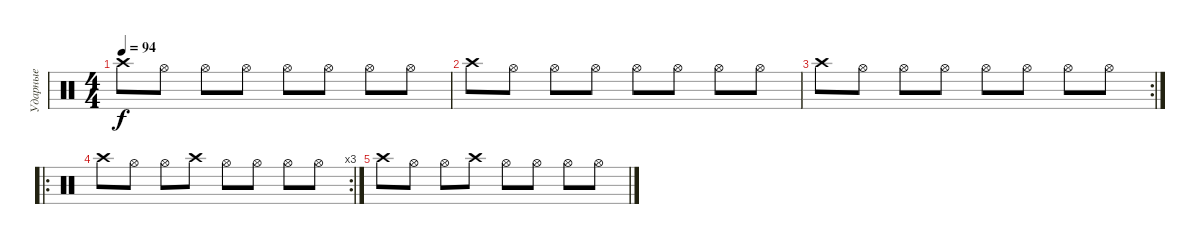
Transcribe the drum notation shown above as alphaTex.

\track ("Ударные" "Ударные") {instrument percussion}
\staff {score}
\articulation defaults
\ts (4 4)
\tempo 94
\clef neutral
\ks c "Crash high (hit)".8{dy f} "Hi-Hat (open)".8 "Hi-Hat (open)".8 "Hi-Hat (open)".8 "Hi-Hat (open)".8 "Hi-Hat (open)".8 "Hi-Hat (open)".8 "Hi-Hat (open)".8
|
"Crash high (hit)".8 "Hi-Hat (open)".8 "Hi-Hat (open)".8 "Hi-Hat (open)".8 "Hi-Hat (open)".8 "Hi-Hat (open)".8 "Hi-Hat (open)".8 "Hi-Hat (open)".8 |
\rc 2 "Crash high (hit)".8 "Hi-Hat (open)".8 "Hi-Hat (open)".8 "Hi-Hat (open)".8 "Hi-Hat (open)".8 "Hi-Hat (open)".8 "Hi-Hat (open)".8 "Hi-Hat (open)".8
|
\ro
\rc 3 "Crash high (hit)".8 "Hi-Hat (open)".8 "Hi-Hat (open)".8 "Crash high (hit)".8 "Hi-Hat (open)".8 "Hi-Hat (open)".8 "Hi-Hat (open)".8 "Hi-Hat (open)".8
|
"Crash high (hit)".8 "Hi-Hat (open)".8 "Hi-Hat (open)".8 "Crash high (hit)".8 "Hi-Hat (open)".8 "Hi-Hat (open)".8 "Hi-Hat (open)".8 "Hi-Hat (open)".8
